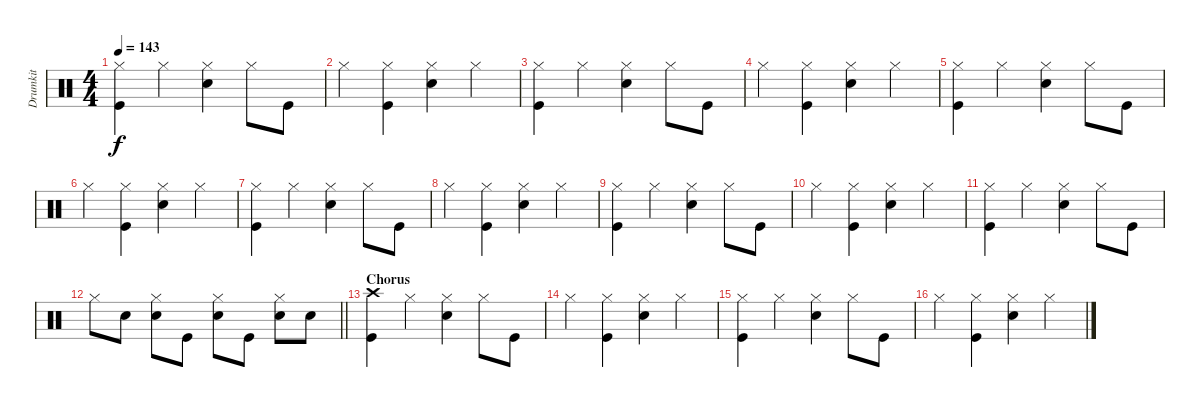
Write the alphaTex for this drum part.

\track ("Drumkit" "Drumkit") {instrument percussion}
\staff {score}
\articulation defaults
\ts (4 4)
\tempo 143
\clef neutral
\ks c
("Kick (hit)" "Hi-Hat (closed)").4{dy f} "Hi-Hat (closed)".4 ("Hi-Hat (closed)" "Snare (hit) 2").4 "Hi-Hat (closed)".8 "Kick (hit)".8 |
"Hi-Hat (closed)".4 ("Hi-Hat (closed)" "Kick (hit)").4 ("Hi-Hat (closed)" "Snare (hit) 2").4 "Hi-Hat (closed)".4 |
("Kick (hit)" "Hi-Hat (closed)").4 "Hi-Hat (closed)".4 ("Hi-Hat (closed)" "Snare (hit) 2").4 "Hi-Hat (closed)".8 "Kick (hit)".8 |
"Hi-Hat (closed)".4 ("Hi-Hat (closed)" "Kick (hit)").4 ("Hi-Hat (closed)" "Snare (hit) 2").4 "Hi-Hat (closed)".4 |
("Kick (hit)" "Hi-Hat (closed)").4 "Hi-Hat (closed)".4 ("Hi-Hat (closed)" "Snare (hit) 2").4 "Hi-Hat (closed)".8 "Kick (hit)".8 |
"Hi-Hat (closed)".4 ("Hi-Hat (closed)" "Kick (hit)").4 ("Hi-Hat (closed)" "Snare (hit) 2").4 "Hi-Hat (closed)".4 |
("Kick (hit)" "Hi-Hat (closed)").4 "Hi-Hat (closed)".4 ("Hi-Hat (closed)" "Snare (hit) 2").4 "Hi-Hat (closed)".8 "Kick (hit)".8 |
"Hi-Hat (closed)".4 ("Hi-Hat (closed)" "Kick (hit)").4 ("Hi-Hat (closed)" "Snare (hit) 2").4 "Hi-Hat (closed)".4 |
("Kick (hit)" "Hi-Hat (closed)").4 "Hi-Hat (closed)".4 ("Hi-Hat (closed)" "Snare (hit) 2").4 "Hi-Hat (closed)".8 "Kick (hit)".8 |
"Hi-Hat (closed)".4 ("Hi-Hat (closed)" "Kick (hit)").4 ("Hi-Hat (closed)" "Snare (hit) 2").4 "Hi-Hat (closed)".4 |
("Kick (hit)" "Hi-Hat (closed)").4 "Hi-Hat (closed)".4 ("Hi-Hat (closed)" "Snare (hit) 2").4 "Hi-Hat (closed)".8 "Kick (hit)".8 |
\barLineRight lightlight "Hi-Hat (closed)".8 "Snare (hit) 2".8
("Hi-Hat (closed)" "Snare (hit) 2").8 "Kick (hit)".8 ("Hi-Hat (closed)" "Snare (hit) 2").8 "Kick (hit)".8 ("Hi-Hat (closed)" "Snare (hit) 2").8 "Snare (hit) 2".8 |
\section ("" "Chorus")
("Crash high (hit)" "Kick (hit)").4 "Hi-Hat (closed)".4 ("Hi-Hat (closed)" "Snare (hit) 2").4 "Hi-Hat (closed)".8 "Kick (hit)".8 |
"Hi-Hat (closed)".4 ("Hi-Hat (closed)" "Kick (hit)").4 ("Hi-Hat (closed)" "Snare (hit) 2").4 "Hi-Hat (closed)".4 |
("Kick (hit)" "Hi-Hat (closed)").4 "Hi-Hat (closed)".4 ("Hi-Hat (closed)" "Snare (hit) 2").4 "Hi-Hat (closed)".8 "Kick (hit)".8 |
"Hi-Hat (closed)".4 ("Hi-Hat (closed)" "Kick (hit)").4 ("Hi-Hat (closed)" "Snare (hit) 2").4 "Hi-Hat (closed)".4
